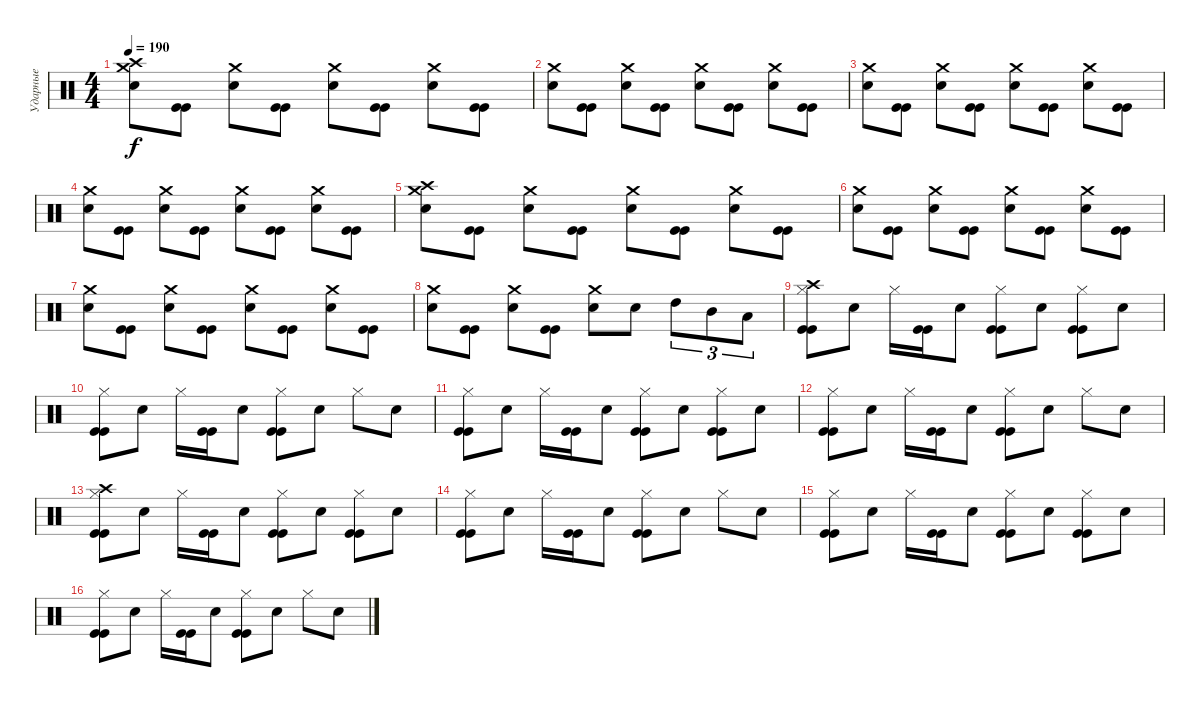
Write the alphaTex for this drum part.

\track ("Ударные" "Ударные") {instrument percussion}
\staff {score}
\articulation defaults
\ts (4 4)
\tempo 190
\clef neutral
\ks c
("Crash high (hit)" "Crash medium (hit)" "Electric Snare (hit)").8{dy f} ("Kick (hit)" "Kick (hit)").8 ("Crash medium (hit)" "Electric Snare (hit)").8 ("Kick (hit)" "Kick (hit)").8 ("Crash medium (hit)" "Electric Snare (hit)").8 ("Kick (hit)" "Kick (hit)").8 ("Crash medium (hit)" "Electric Snare (hit)").8 ("Kick (hit)" "Kick (hit)").8 |
("Crash medium (hit)" "Electric Snare (hit)").8 ("Kick (hit)" "Kick (hit)").8 ("Crash medium (hit)" "Electric Snare (hit)").8 ("Kick (hit)" "Kick (hit)").8 ("Crash medium (hit)" "Electric Snare (hit)").8 ("Kick (hit)" "Kick (hit)").8 ("Crash medium (hit)" "Electric Snare (hit)").8 ("Kick (hit)" "Kick (hit)").8 |
("Crash medium (hit)" "Electric Snare (hit)").8 ("Kick (hit)" "Kick (hit)").8 ("Crash medium (hit)" "Electric Snare (hit)").8 ("Kick (hit)" "Kick (hit)").8 ("Crash medium (hit)" "Electric Snare (hit)").8 ("Kick (hit)" "Kick (hit)").8 ("Crash medium (hit)" "Electric Snare (hit)").8 ("Kick (hit)" "Kick (hit)").8 |
("Crash medium (hit)" "Electric Snare (hit)").8 ("Kick (hit)" "Kick (hit)").8 ("Crash medium (hit)" "Electric Snare (hit)").8 ("Kick (hit)" "Kick (hit)").8 ("Crash medium (hit)" "Electric Snare (hit)").8 ("Kick (hit)" "Kick (hit)").8 ("Crash medium (hit)" "Electric Snare (hit)").8 ("Kick (hit)" "Kick (hit)").8 |
("Crash high (hit)" "Crash medium (hit)" "Electric Snare (hit)").8 ("Kick (hit)" "Kick (hit)").8 ("Crash medium (hit)" "Electric Snare (hit)").8 ("Kick (hit)" "Kick (hit)").8 ("Crash medium (hit)" "Electric Snare (hit)").8 ("Kick (hit)" "Kick (hit)").8 ("Crash medium (hit)" "Electric Snare (hit)").8 ("Kick (hit)" "Kick (hit)").8 |
("Crash medium (hit)" "Electric Snare (hit)").8 ("Kick (hit)" "Kick (hit)").8 ("Crash medium (hit)" "Electric Snare (hit)").8 ("Kick (hit)" "Kick (hit)").8 ("Crash medium (hit)" "Electric Snare (hit)").8 ("Kick (hit)" "Kick (hit)").8 ("Crash medium (hit)" "Electric Snare (hit)").8 ("Kick (hit)" "Kick (hit)").8 |
("Crash medium (hit)" "Electric Snare (hit)").8 ("Kick (hit)" "Kick (hit)").8 ("Crash medium (hit)" "Electric Snare (hit)").8 ("Kick (hit)" "Kick (hit)").8 ("Crash medium (hit)" "Electric Snare (hit)").8 ("Kick (hit)" "Kick (hit)").8 ("Crash medium (hit)" "Electric Snare (hit)").8 ("Kick (hit)" "Kick (hit)").8 |
("Crash medium (hit)" "Electric Snare (hit)").8 ("Kick (hit)" "Kick (hit)").8 ("Crash medium (hit)" "Electric Snare (hit)").8 ("Kick (hit)" "Kick (hit)").8 ("Crash medium (hit)" "Electric Snare (hit)").8 "Electric Snare (hit)".8 "High Tom (hit)".8{tu (3 2)} "Mid Tom (hit)".8{tu (3 2)} "Low Tom (hit)".8{tu (3 2)} |
("Crash high (hit)" "Hi-Hat (closed)" "Kick (hit)" "Kick (hit)").8 "Electric Snare (hit)".8 "Hi-Hat (closed)".16 ("Kick (hit)" "Kick (hit)").16 "Electric Snare (hit)".8 ("Hi-Hat (closed)" "Kick (hit)" "Kick (hit)").8 "Electric Snare (hit)".8 ("Hi-Hat (closed)" "Kick (hit)" "Kick (hit)").8 "Electric Snare (hit)".8 |
("Hi-Hat (closed)" "Kick (hit)" "Kick (hit)").8 "Electric Snare (hit)".8 "Hi-Hat (closed)".16 ("Kick (hit)" "Kick (hit)").16 "Electric Snare (hit)".8 ("Hi-Hat (closed)" "Kick (hit)" "Kick (hit)").8 "Electric Snare (hit)".8 "Hi-Hat (closed)".8 "Electric Snare (hit)".8 |
("Hi-Hat (closed)" "Kick (hit)" "Kick (hit)").8 "Electric Snare (hit)".8 "Hi-Hat (closed)".16 ("Kick (hit)" "Kick (hit)").16 "Electric Snare (hit)".8 ("Hi-Hat (closed)" "Kick (hit)" "Kick (hit)").8 "Electric Snare (hit)".8 ("Hi-Hat (closed)" "Kick (hit)" "Kick (hit)").8 "Electric Snare (hit)".8 |
("Hi-Hat (closed)" "Kick (hit)" "Kick (hit)").8 "Electric Snare (hit)".8 "Hi-Hat (closed)".16 ("Kick (hit)" "Kick (hit)").16 "Electric Snare (hit)".8 ("Hi-Hat (closed)" "Kick (hit)" "Kick (hit)").8 "Electric Snare (hit)".8 "Hi-Hat (closed)".8 "Electric Snare (hit)".8 |
("Crash high (hit)" "Hi-Hat (closed)" "Kick (hit)" "Kick (hit)").8 "Electric Snare (hit)".8 "Hi-Hat (closed)".16 ("Kick (hit)" "Kick (hit)").16 "Electric Snare (hit)".8 ("Hi-Hat (closed)" "Kick (hit)" "Kick (hit)").8 "Electric Snare (hit)".8 ("Hi-Hat (closed)" "Kick (hit)" "Kick (hit)").8 "Electric Snare (hit)".8 |
("Hi-Hat (closed)" "Kick (hit)" "Kick (hit)").8 "Electric Snare (hit)".8 "Hi-Hat (closed)".16 ("Kick (hit)" "Kick (hit)").16 "Electric Snare (hit)".8 ("Hi-Hat (closed)" "Kick (hit)" "Kick (hit)").8 "Electric Snare (hit)".8 "Hi-Hat (closed)".8 "Electric Snare (hit)".8 |
("Hi-Hat (closed)" "Kick (hit)" "Kick (hit)").8 "Electric Snare (hit)".8 "Hi-Hat (closed)".16 ("Kick (hit)" "Kick (hit)").16 "Electric Snare (hit)".8 ("Hi-Hat (closed)" "Kick (hit)" "Kick (hit)").8 "Electric Snare (hit)".8 ("Hi-Hat (closed)" "Kick (hit)" "Kick (hit)").8 "Electric Snare (hit)".8 |
("Hi-Hat (closed)" "Kick (hit)" "Kick (hit)").8 "Electric Snare (hit)".8 "Hi-Hat (closed)".16 ("Kick (hit)" "Kick (hit)").16 "Electric Snare (hit)".8 ("Hi-Hat (closed)" "Kick (hit)" "Kick (hit)").8 "Electric Snare (hit)".8 "Hi-Hat (closed)".8 "Electric Snare (hit)".8
